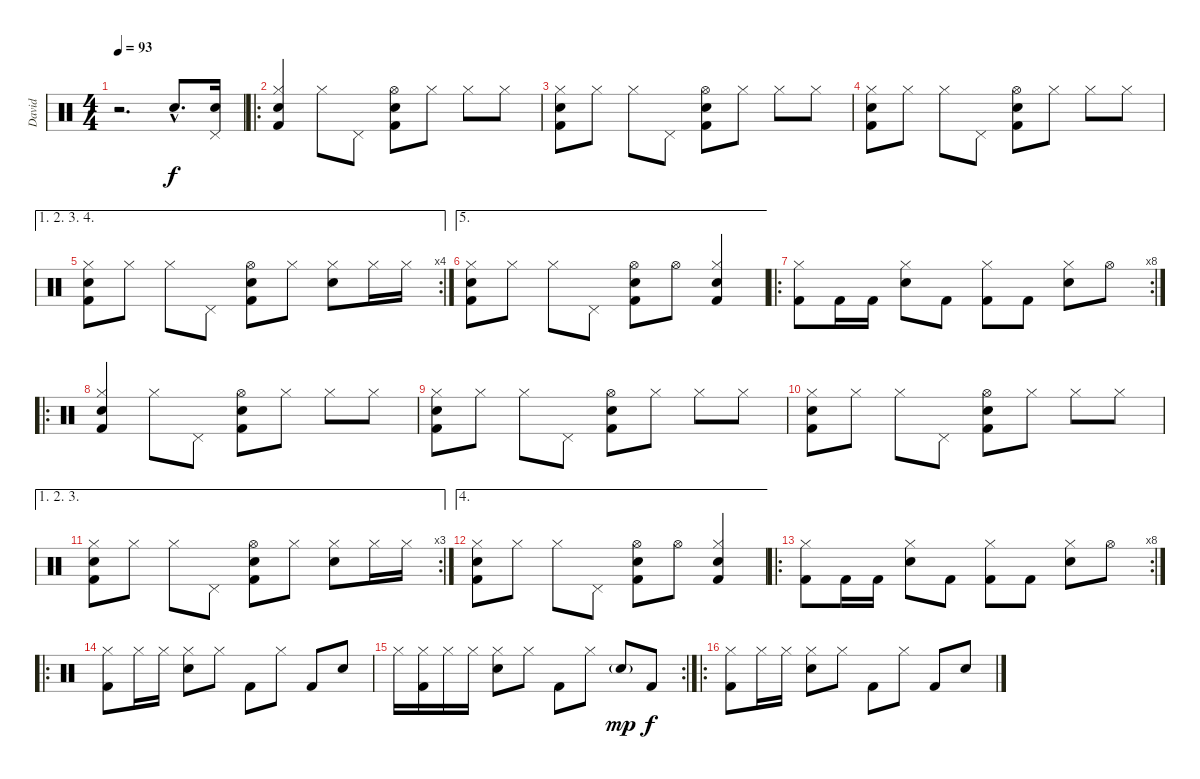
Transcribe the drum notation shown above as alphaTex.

\track ("David" "David") {instrument percussion}
\staff {score}
\articulation defaults
\ts (4 4)
\tempo 93
\clef neutral
\ks c
r.2{d dy f} "Snare (hit) 2"{hac}.8{d} ("Snare (hit) 2" "Pedal Hi-Hat (hit)").16 |
\ro
("Hi-Hat (closed)" "Snare (hit) 2" "Kick (hit) 2").4 "Hi-Hat (closed)".8 "Pedal Hi-Hat (hit)".8 ("Hi-Hat (open)" "Snare (hit) 2" "Kick (hit) 2").8 "Hi-Hat (closed)".8 "Hi-Hat (closed)".8 "Hi-Hat (closed)".8 |
("Hi-Hat (closed)" "Snare (hit) 2" "Kick (hit) 2").8 "Hi-Hat (closed)".8 "Hi-Hat (closed)".8 "Pedal Hi-Hat (hit)".8 ("Hi-Hat (open)" "Snare (hit) 2" "Kick (hit) 2").8 "Hi-Hat (closed)".8 "Hi-Hat (closed)".8 "Hi-Hat (closed)".8 |
("Hi-Hat (closed)" "Snare (hit) 2" "Kick (hit) 2").8 "Hi-Hat (closed)".8 "Hi-Hat (closed)".8 "Pedal Hi-Hat (hit)".8 ("Hi-Hat (open)" "Snare (hit) 2" "Kick (hit) 2").8 "Hi-Hat (closed)".8 "Hi-Hat (closed)".8 "Hi-Hat (closed)".8 |
\ae (1 2 3 4)
\rc 4
("Hi-Hat (closed)" "Snare (hit) 2" "Kick (hit) 2").8 "Hi-Hat (closed)".8 "Hi-Hat (closed)".8 "Pedal Hi-Hat (hit)".8 ("Hi-Hat (open)" "Snare (hit) 2" "Kick (hit) 2").8 "Hi-Hat (closed)".8 ("Hi-Hat (closed)" "Snare (hit) 2").8 "Hi-Hat (closed)".16 "Hi-Hat (closed)".16 |
\ae 5
("Hi-Hat (closed)" "Snare (hit) 2" "Kick (hit) 2").8 "Hi-Hat (closed)".8 "Hi-Hat (closed)".8 "Pedal Hi-Hat (hit)".8 ("Hi-Hat (open)" "Snare (hit) 2" "Kick (hit) 2").8 "Hi-Hat (open)".8 ("Hi-Hat (closed)" "Snare (hit) 2" "Kick (hit) 2").4 |
\ro
\rc 8
("Hi-Hat (closed)" "Kick (hit) 2").8 "Kick (hit) 2".16 "Kick (hit) 2".16 ("Hi-Hat (closed)" "Snare (hit) 2").8 "Kick (hit) 2".8 ("Hi-Hat (closed)" "Kick (hit) 2").8 "Kick (hit) 2".8 ("Hi-Hat (closed)" "Snare (hit) 2").8 "Hi-Hat (open)".8 |
\ro
("Hi-Hat (closed)" "Snare (hit) 2" "Kick (hit) 2").4 "Hi-Hat (closed)".8 "Pedal Hi-Hat (hit)".8 ("Hi-Hat (open)" "Snare (hit) 2" "Kick (hit) 2").8 "Hi-Hat (closed)".8 "Hi-Hat (closed)".8 "Hi-Hat (closed)".8 |
("Hi-Hat (closed)" "Snare (hit) 2" "Kick (hit) 2").8 "Hi-Hat (closed)".8 "Hi-Hat (closed)".8 "Pedal Hi-Hat (hit)".8 ("Hi-Hat (open)" "Snare (hit) 2" "Kick (hit) 2").8 "Hi-Hat (closed)".8 "Hi-Hat (closed)".8 "Hi-Hat (closed)".8 |
("Hi-Hat (closed)" "Snare (hit) 2" "Kick (hit) 2").8 "Hi-Hat (closed)".8 "Hi-Hat (closed)".8 "Pedal Hi-Hat (hit)".8 ("Hi-Hat (open)" "Snare (hit) 2" "Kick (hit) 2").8 "Hi-Hat (closed)".8 "Hi-Hat (closed)".8 "Hi-Hat (closed)".8 |
\ae (1 2 3)
\rc 3
("Hi-Hat (closed)" "Snare (hit) 2" "Kick (hit) 2").8 "Hi-Hat (closed)".8 "Hi-Hat (closed)".8 "Pedal Hi-Hat (hit)".8 ("Hi-Hat (open)" "Snare (hit) 2" "Kick (hit) 2").8 "Hi-Hat (closed)".8 ("Hi-Hat (closed)" "Snare (hit) 2").8 "Hi-Hat (closed)".16 "Hi-Hat (closed)".16 |
\ae 4
("Hi-Hat (closed)" "Snare (hit) 2" "Kick (hit) 2").8 "Hi-Hat (closed)".8 "Hi-Hat (closed)".8 "Pedal Hi-Hat (hit)".8 ("Hi-Hat (open)" "Snare (hit) 2" "Kick (hit) 2").8 "Hi-Hat (open)".8 ("Hi-Hat (closed)" "Snare (hit) 2" "Kick (hit) 2").4 |
\ro
\rc 8
("Hi-Hat (closed)" "Kick (hit) 2").8 "Kick (hit) 2".16 "Kick (hit) 2".16 ("Hi-Hat (closed)" "Snare (hit) 2").8 "Kick (hit) 2".8 ("Hi-Hat (closed)" "Kick (hit) 2").8 "Kick (hit) 2".8 ("Hi-Hat (closed)" "Snare (hit) 2").8 "Hi-Hat (open)".8 |
\ro
("Hi-Hat (closed)" "Kick (hit) 2").8 "Hi-Hat (closed)".16 "Hi-Hat (closed)".16 ("Hi-Hat (closed)" "Snare (hit) 2").8 "Hi-Hat (closed)".8 "Kick (hit) 2".8 "Hi-Hat (closed)".8 "Kick (hit) 2".8 "Snare (hit) 2".8 |
\rc 2 "Hi-Hat (closed)".16
("Hi-Hat (closed)" "Kick (hit) 2").16 "Hi-Hat (closed)".16 "Hi-Hat (closed)".16 ("Hi-Hat (closed)" "Snare (hit) 2").8 "Hi-Hat (closed)".8 "Kick (hit) 2".8 "Hi-Hat (closed)".8 "Snare (hit) 2"{g}.8{dy mp} "Kick (hit) 2".8{dy f} |
\ro
("Hi-Hat (closed)" "Kick (hit) 2").8 "Hi-Hat (closed)".16 "Hi-Hat (closed)".16 ("Hi-Hat (closed)" "Snare (hit) 2").8 "Hi-Hat (closed)".8 "Kick (hit) 2".8 "Hi-Hat (closed)".8 "Kick (hit) 2".8 "Snare (hit) 2".8
